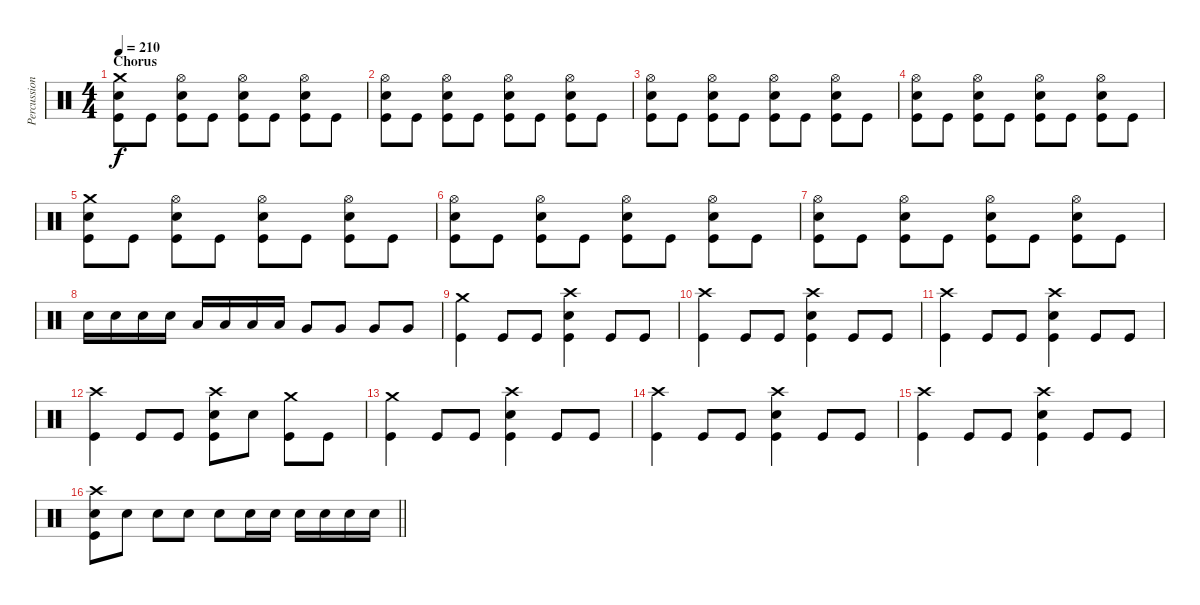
\track ("Percussion" "Percussion") {instrument percussion}
\staff {score}
\articulation defaults
\ts (4 4)
\section ("" "Chorus")
\tempo 210
\clef neutral
\ks c
("Crash medium (hit)" "Electric Snare (hit)" "Kick (hit)").8{dy f} "Kick (hit)".8 ("Hi-Hat (open)" "Electric Snare (hit)" "Kick (hit)").8 "Kick (hit)".8 ("Hi-Hat (open)" "Electric Snare (hit)" "Kick (hit)").8 "Kick (hit)".8 ("Hi-Hat (open)" "Electric Snare (hit)" "Kick (hit)").8 "Kick (hit)".8 |
("Hi-Hat (open)" "Electric Snare (hit)" "Kick (hit)").8 "Kick (hit)".8 ("Hi-Hat (open)" "Electric Snare (hit)" "Kick (hit)").8 "Kick (hit)".8 ("Hi-Hat (open)" "Electric Snare (hit)" "Kick (hit)").8 "Kick (hit)".8 ("Hi-Hat (open)" "Electric Snare (hit)" "Kick (hit)").8 "Kick (hit)".8 |
("Hi-Hat (open)" "Electric Snare (hit)" "Kick (hit)").8 "Kick (hit)".8 ("Hi-Hat (open)" "Electric Snare (hit)" "Kick (hit)").8 "Kick (hit)".8 ("Hi-Hat (open)" "Electric Snare (hit)" "Kick (hit)").8 "Kick (hit)".8 ("Hi-Hat (open)" "Electric Snare (hit)" "Kick (hit)").8 "Kick (hit)".8 |
("Hi-Hat (open)" "Electric Snare (hit)" "Kick (hit)").8 "Kick (hit)".8 ("Hi-Hat (open)" "Electric Snare (hit)" "Kick (hit)").8 "Kick (hit)".8 ("Hi-Hat (open)" "Electric Snare (hit)" "Kick (hit)").8 "Kick (hit)".8 ("Hi-Hat (open)" "Electric Snare (hit)" "Kick (hit)").8 "Kick (hit)".8 |
("Crash medium (hit)" "Electric Snare (hit)" "Kick (hit)").8 "Kick (hit)".8 ("Hi-Hat (open)" "Electric Snare (hit)" "Kick (hit)").8 "Kick (hit)".8 ("Hi-Hat (open)" "Electric Snare (hit)" "Kick (hit)").8 "Kick (hit)".8 ("Hi-Hat (open)" "Electric Snare (hit)" "Kick (hit)").8 "Kick (hit)".8 |
("Hi-Hat (open)" "Electric Snare (hit)" "Kick (hit)").8 "Kick (hit)".8 ("Hi-Hat (open)" "Electric Snare (hit)" "Kick (hit)").8 "Kick (hit)".8 ("Hi-Hat (open)" "Electric Snare (hit)" "Kick (hit)").8 "Kick (hit)".8 ("Hi-Hat (open)" "Electric Snare (hit)" "Kick (hit)").8 "Kick (hit)".8 |
("Hi-Hat (open)" "Electric Snare (hit)" "Kick (hit)").8 "Kick (hit)".8 ("Hi-Hat (open)" "Electric Snare (hit)" "Kick (hit)").8 "Kick (hit)".8 ("Hi-Hat (open)" "Electric Snare (hit)" "Kick (hit)").8 "Kick (hit)".8 ("Hi-Hat (open)" "Electric Snare (hit)" "Kick (hit)").8 "Kick (hit)".8 |
"Electric Snare (hit)".16 "Electric Snare (hit)".16 "Electric Snare (hit)".16 "Electric Snare (hit)".16 "Low Tom (hit)".16 "Low Tom (hit)".16 "Low Tom (hit)".16 "Low Tom (hit)".16 "Very Low Tom (hit)".8 "Very Low Tom (hit)".8 "Very Low Tom (hit)".8 "Very Low Tom (hit)".8 |
("Crash medium (hit)" "Kick (hit)").4 "Kick (hit)".8 "Kick (hit)".8 ("Crash high (hit)" "Electric Snare (hit)" "Kick (hit)").4 "Kick (hit)".8 "Kick (hit)".8 |
("Crash high (hit)" "Kick (hit)").4 "Kick (hit)".8 "Kick (hit)".8 ("Crash high (hit)" "Electric Snare (hit)" "Kick (hit)").4 "Kick (hit)".8 "Kick (hit)".8 |
("Crash high (hit)" "Kick (hit)").4 "Kick (hit)".8 "Kick (hit)".8 ("Crash high (hit)" "Electric Snare (hit)" "Kick (hit)").4 "Kick (hit)".8 "Kick (hit)".8 |
("Crash high (hit)" "Kick (hit)").4 "Kick (hit)".8 "Kick (hit)".8 ("Crash high (hit)" "Electric Snare (hit)" "Kick (hit)").8 "Electric Snare (hit)".8 ("Crash medium (hit)" "Kick (hit)").8 "Kick (hit)".8 |
("Crash medium (hit)" "Kick (hit)").4 "Kick (hit)".8 "Kick (hit)".8 ("Crash high (hit)" "Electric Snare (hit)" "Kick (hit)").4 "Kick (hit)".8 "Kick (hit)".8 |
("Crash high (hit)" "Kick (hit)").4 "Kick (hit)".8 "Kick (hit)".8 ("Crash high (hit)" "Electric Snare (hit)" "Kick (hit)").4 "Kick (hit)".8 "Kick (hit)".8 |
("Crash high (hit)" "Kick (hit)").4 "Kick (hit)".8 "Kick (hit)".8 ("Crash high (hit)" "Electric Snare (hit)" "Kick (hit)").4 "Kick (hit)".8 "Kick (hit)".8 |
\barLineRight lightlight
("Crash high (hit)" "Electric Snare (hit)" "Kick (hit)").8 "Electric Snare (hit)".8 "Electric Snare (hit)".8 "Electric Snare (hit)".8 "Electric Snare (hit)".8 "Electric Snare (hit)".16 "Electric Snare (hit)".16 "Electric Snare (hit)".16 "Electric Snare (hit)".16 "Electric Snare (hit)".16 "Electric Snare (hit)".16
